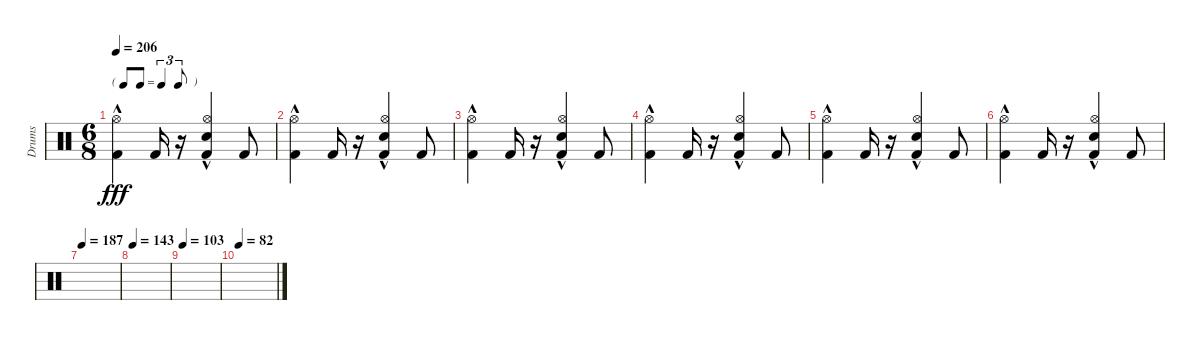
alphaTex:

\track ("Drums" "Drums") {instrument percussion}
\staff {score}
\articulation defaults
\ts (6 8)
\tf triplet8th
\tempo 206
\clef neutral
\ks c
("Kick (hit) 2"{hac} "Hi-Hat (open)").4{dy fff} "Kick (hit) 2".16 r.16 ("Kick (hit) 2" "Hi-Hat (open)" "Snare (hit) 2"{hac}).4 "Kick (hit) 2".8 |
("Hi-Hat (open)" "Kick (hit) 2"{hac}).4 "Kick (hit) 2".16 r.16 ("Hi-Hat (open)" "Snare (hit) 2"{hac} "Kick (hit) 2").4 "Kick (hit) 2".8 |
("Hi-Hat (open)" "Kick (hit) 2"{hac}).4 "Kick (hit) 2".16 r.16 ("Hi-Hat (open)" "Snare (hit) 2"{hac} "Kick (hit) 2").4 "Kick (hit) 2".8 |
("Hi-Hat (open)" "Kick (hit) 2"{hac}).4 "Kick (hit) 2".16 r.16 ("Hi-Hat (open)" "Snare (hit) 2"{hac} "Kick (hit) 2").4 "Kick (hit) 2".8 |
("Kick (hit) 2"{hac} "Hi-Hat (open)").4 "Kick (hit) 2".16 r.16 ("Kick (hit) 2" "Hi-Hat (open)" "Snare (hit) 2"{hac}).4 "Kick (hit) 2".8 |
("Kick (hit) 2"{hac} "Hi-Hat (open)").4 "Kick (hit) 2".16 r.16 ("Kick (hit) 2" "Hi-Hat (open)" "Snare (hit) 2"{hac}).4 "Kick (hit) 2".8 |
\tempo 187
|
\tempo 143
|
\tempo 103
|
\tempo 82
